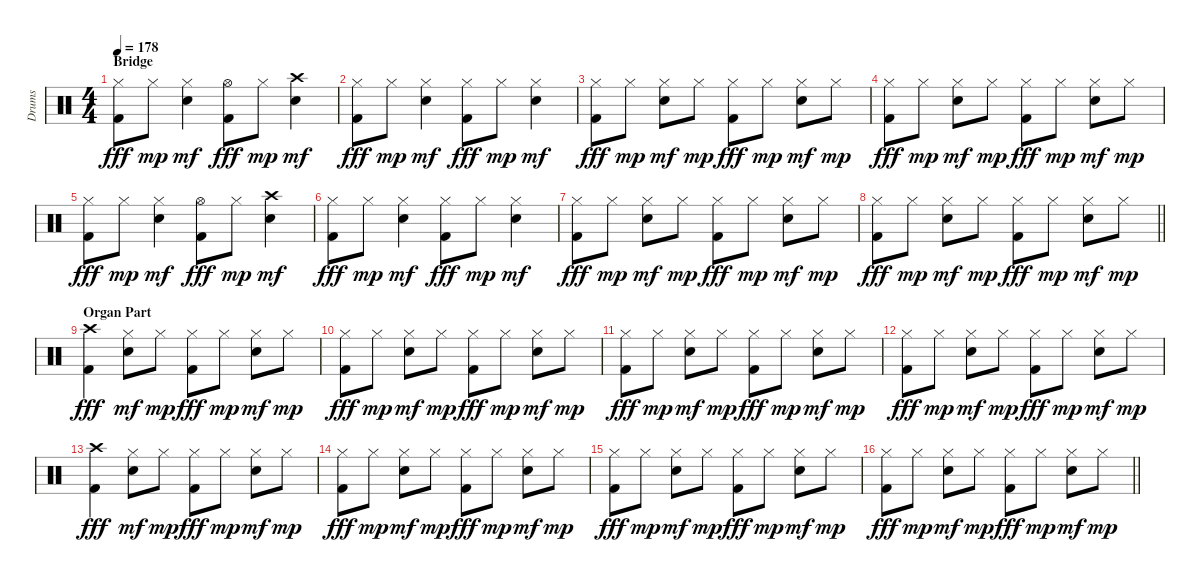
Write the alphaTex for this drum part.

\track ("Drums" "Drums") {instrument percussion}
\staff {score}
\articulation defaults
\ts (4 4)
\section ("" "Bridge")
\tempo 178
\clef neutral
\ks c
("Hi-Hat (closed)" "Kick (hit) 2").8{dy fff} "Hi-Hat (closed)".8{dy mp} ("Hi-Hat (closed)" "Electric Snare (hit)").4{dy mf} ("Hi-Hat (open)" "Kick (hit) 2").8{dy fff} "Hi-Hat (closed)".8{dy mp} ("Crash high (hit)" "Electric Snare (hit)").4{dy mf} |
("Hi-Hat (closed)" "Kick (hit) 2").8{dy fff} "Hi-Hat (closed)".8{dy mp} ("Hi-Hat (closed)" "Electric Snare (hit)").4{dy mf} ("Hi-Hat (closed)" "Kick (hit) 2").8{dy fff} "Hi-Hat (closed)".8{dy mp} ("Hi-Hat (closed)" "Electric Snare (hit)").4{dy mf} |
("Hi-Hat (closed)" "Kick (hit) 2").8{dy fff} "Hi-Hat (closed)".8{dy mp} ("Hi-Hat (closed)" "Electric Snare (hit)").8{dy mf} "Hi-Hat (closed)".8{dy mp} ("Hi-Hat (closed)" "Kick (hit) 2").8{dy fff} "Hi-Hat (closed)".8{dy mp} ("Hi-Hat (closed)" "Electric Snare (hit)").8{dy mf} "Hi-Hat (closed)".8{dy mp} |
("Hi-Hat (closed)" "Kick (hit) 2").8{dy fff} "Hi-Hat (closed)".8{dy mp} ("Hi-Hat (closed)" "Electric Snare (hit)").8{dy mf} "Hi-Hat (closed)".8{dy mp} ("Hi-Hat (closed)" "Kick (hit) 2").8{dy fff} "Hi-Hat (closed)".8{dy mp} ("Hi-Hat (closed)" "Electric Snare (hit)").8{dy mf} "Hi-Hat (closed)".8{dy mp} |
("Hi-Hat (closed)" "Kick (hit) 2").8{dy fff} "Hi-Hat (closed)".8{dy mp} ("Hi-Hat (closed)" "Electric Snare (hit)").4{dy mf} ("Hi-Hat (open)" "Kick (hit) 2").8{dy fff} "Hi-Hat (closed)".8{dy mp} ("Crash high (hit)" "Electric Snare (hit)").4{dy mf} |
("Hi-Hat (closed)" "Kick (hit) 2").8{dy fff} "Hi-Hat (closed)".8{dy mp} ("Hi-Hat (closed)" "Electric Snare (hit)").4{dy mf} ("Hi-Hat (closed)" "Kick (hit) 2").8{dy fff} "Hi-Hat (closed)".8{dy mp} ("Hi-Hat (closed)" "Electric Snare (hit)").4{dy mf} |
("Hi-Hat (closed)" "Kick (hit) 2").8{dy fff} "Hi-Hat (closed)".8{dy mp} ("Hi-Hat (closed)" "Electric Snare (hit)").8{dy mf} "Hi-Hat (closed)".8{dy mp} ("Hi-Hat (closed)" "Kick (hit) 2").8{dy fff} "Hi-Hat (closed)".8{dy mp} ("Hi-Hat (closed)" "Electric Snare (hit)").8{dy mf} "Hi-Hat (closed)".8{dy mp} |
\barLineRight lightlight
("Hi-Hat (closed)" "Kick (hit) 2").8{dy fff} "Hi-Hat (closed)".8{dy mp} ("Hi-Hat (closed)" "Electric Snare (hit)").8{dy mf} "Hi-Hat (closed)".8{dy mp} ("Hi-Hat (closed)" "Kick (hit) 2").8{dy fff} "Hi-Hat (closed)".8{dy mp} ("Hi-Hat (closed)" "Electric Snare (hit)").8{dy mf} "Hi-Hat (closed)".8{dy mp} |
\section ("" "Organ Part")
("Crash high (hit)" "Kick (hit) 2").4{dy fff} ("Hi-Hat (closed)" "Electric Snare (hit)").8{dy mf} "Hi-Hat (closed)".8{dy mp} ("Hi-Hat (closed)" "Kick (hit) 2").8{dy fff} "Hi-Hat (closed)".8{dy mp} ("Hi-Hat (closed)" "Electric Snare (hit)").8{dy mf} "Hi-Hat (closed)".8{dy mp} |
("Hi-Hat (closed)" "Kick (hit) 2").8{dy fff} "Hi-Hat (closed)".8{dy mp} ("Hi-Hat (closed)" "Electric Snare (hit)").8{dy mf} "Hi-Hat (closed)".8{dy mp} ("Hi-Hat (closed)" "Kick (hit) 2").8{dy fff} "Hi-Hat (closed)".8{dy mp} ("Hi-Hat (closed)" "Electric Snare (hit)").8{dy mf} "Hi-Hat (closed)".8{dy mp} |
("Hi-Hat (closed)" "Kick (hit) 2").8{dy fff} "Hi-Hat (closed)".8{dy mp} ("Hi-Hat (closed)" "Electric Snare (hit)").8{dy mf} "Hi-Hat (closed)".8{dy mp} ("Hi-Hat (closed)" "Kick (hit) 2").8{dy fff} "Hi-Hat (closed)".8{dy mp} ("Hi-Hat (closed)" "Electric Snare (hit)").8{dy mf} "Hi-Hat (closed)".8{dy mp} |
("Hi-Hat (closed)" "Kick (hit) 2").8{dy fff} "Hi-Hat (closed)".8{dy mp} ("Hi-Hat (closed)" "Electric Snare (hit)").8{dy mf} "Hi-Hat (closed)".8{dy mp} ("Hi-Hat (closed)" "Kick (hit) 2").8{dy fff} "Hi-Hat (closed)".8{dy mp} ("Hi-Hat (closed)" "Electric Snare (hit)").8{dy mf} "Hi-Hat (closed)".8{dy mp} |
("Crash high (hit)" "Kick (hit) 2").4{dy fff} ("Hi-Hat (closed)" "Electric Snare (hit)").8{dy mf} "Hi-Hat (closed)".8{dy mp} ("Hi-Hat (closed)" "Kick (hit) 2").8{dy fff} "Hi-Hat (closed)".8{dy mp} ("Hi-Hat (closed)" "Electric Snare (hit)").8{dy mf} "Hi-Hat (closed)".8{dy mp} |
("Hi-Hat (closed)" "Kick (hit) 2").8{dy fff} "Hi-Hat (closed)".8{dy mp} ("Hi-Hat (closed)" "Electric Snare (hit)").8{dy mf} "Hi-Hat (closed)".8{dy mp} ("Hi-Hat (closed)" "Kick (hit) 2").8{dy fff} "Hi-Hat (closed)".8{dy mp} ("Hi-Hat (closed)" "Electric Snare (hit)").8{dy mf} "Hi-Hat (closed)".8{dy mp} |
("Hi-Hat (closed)" "Kick (hit) 2").8{dy fff} "Hi-Hat (closed)".8{dy mp} ("Hi-Hat (closed)" "Electric Snare (hit)").8{dy mf} "Hi-Hat (closed)".8{dy mp} ("Hi-Hat (closed)" "Kick (hit) 2").8{dy fff} "Hi-Hat (closed)".8{dy mp} ("Hi-Hat (closed)" "Electric Snare (hit)").8{dy mf} "Hi-Hat (closed)".8{dy mp} |
\barLineRight lightlight
("Hi-Hat (closed)" "Kick (hit) 2").8{dy fff} "Hi-Hat (closed)".8{dy mp} ("Hi-Hat (closed)" "Electric Snare (hit)").8{dy mf} "Hi-Hat (closed)".8{dy mp} ("Hi-Hat (closed)" "Kick (hit) 2").8{dy fff} "Hi-Hat (closed)".8{dy mp} ("Hi-Hat (closed)" "Electric Snare (hit)").8{dy mf} "Hi-Hat (closed)".8{dy mp}
